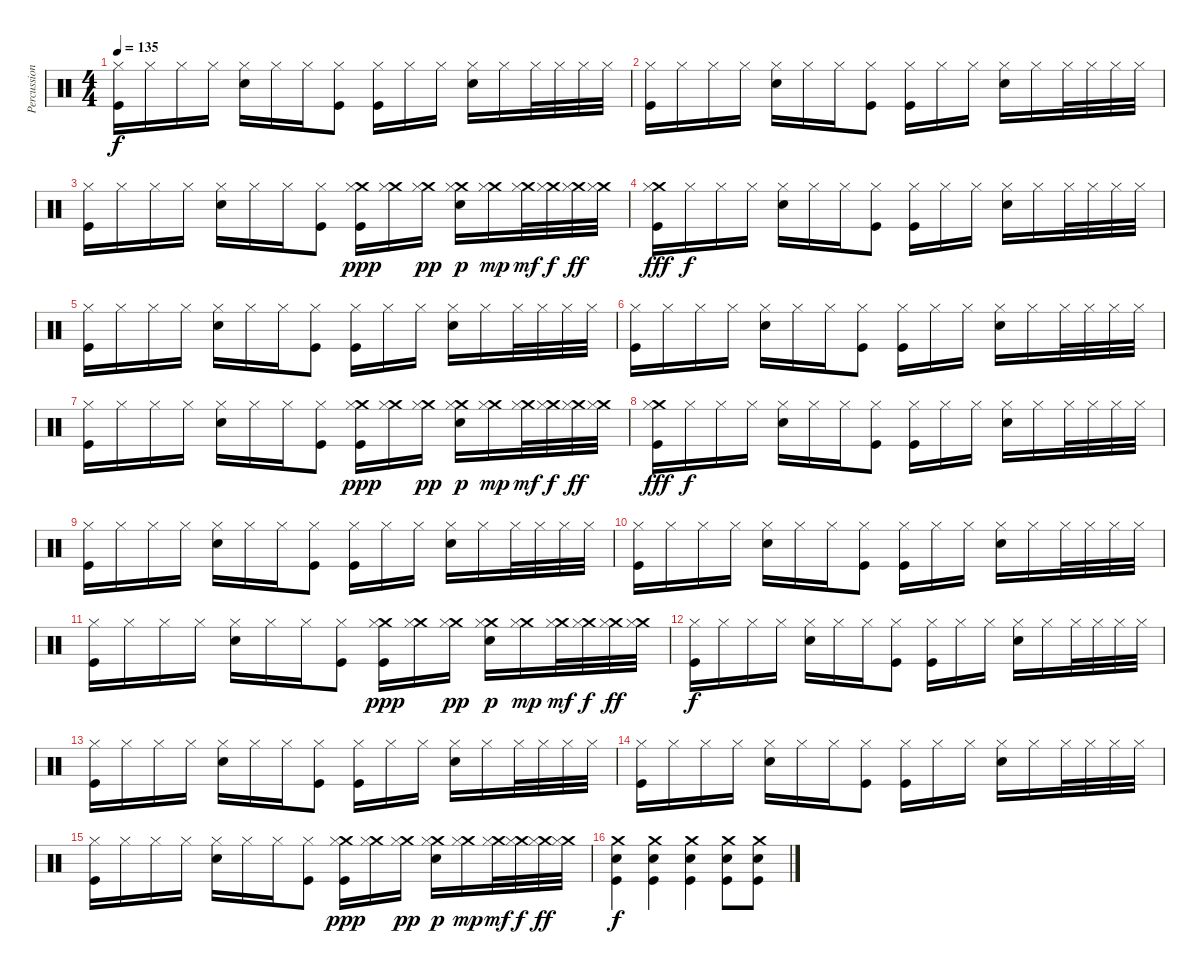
\track ("Percussion" "Percussion") {instrument percussion}
\staff {score}
\articulation defaults
\ts (4 4)
\tempo 135
\clef neutral
\ks c
("Hi-Hat (closed)" "Kick (hit)").16{dy f} "Hi-Hat (closed)".16 "Hi-Hat (closed)".16 "Hi-Hat (closed)".16 ("Hi-Hat (closed)" "Snare (hit) 2").16 "Hi-Hat (closed)".16 "Hi-Hat (closed)".16 ("Hi-Hat (closed)" "Kick (hit)").8 ("Hi-Hat (closed)" "Kick (hit)").16 "Hi-Hat (closed)".16 "Hi-Hat (closed)".16 ("Hi-Hat (closed)" "Snare (hit) 2").16 "Hi-Hat (closed)".16 "Hi-Hat (closed)".32 "Hi-Hat (closed)".32 "Hi-Hat (closed)".32 "Hi-Hat (closed)".32 |
("Hi-Hat (closed)" "Kick (hit)").16 "Hi-Hat (closed)".16 "Hi-Hat (closed)".16 "Hi-Hat (closed)".16 ("Hi-Hat (closed)" "Snare (hit) 2").16 "Hi-Hat (closed)".16 "Hi-Hat (closed)".16 ("Hi-Hat (closed)" "Kick (hit)").8 ("Hi-Hat (closed)" "Kick (hit)").16 "Hi-Hat (closed)".16 "Hi-Hat (closed)".16 ("Hi-Hat (closed)" "Snare (hit) 2").16 "Hi-Hat (closed)".16 "Hi-Hat (closed)".32 "Hi-Hat (closed)".32 "Hi-Hat (closed)".32 "Hi-Hat (closed)".32 |
("Hi-Hat (closed)" "Kick (hit)").16 "Hi-Hat (closed)".16 "Hi-Hat (closed)".16 "Hi-Hat (closed)".16 ("Hi-Hat (closed)" "Snare (hit) 2").16 "Hi-Hat (closed)".16 "Hi-Hat (closed)".16 ("Hi-Hat (closed)" "Kick (hit)").8 ("Crash medium (hit)" "Hi-Hat (closed)" "Kick (hit)").16{dy ppp} ("Crash medium (hit)" "Hi-Hat (closed)").16 ("Crash medium (hit)" "Hi-Hat (closed)").16{dy pp} ("Crash medium (hit)" "Hi-Hat (closed)" "Snare (hit) 2").16{dy p} ("Crash medium (hit)" "Hi-Hat (closed)").16{dy mp} ("Crash medium (hit)" "Hi-Hat (closed)").32{dy mf} ("Crash medium (hit)" "Hi-Hat (closed)").32{dy f} ("Crash medium (hit)" "Hi-Hat (closed)").32{dy ff} ("Crash medium (hit)" "Hi-Hat (closed)").32 |
("Crash medium (hit)" "Hi-Hat (closed)" "Kick (hit)").16{dy fff} "Hi-Hat (closed)".16{dy f} "Hi-Hat (closed)".16 "Hi-Hat (closed)".16 ("Hi-Hat (closed)" "Snare (hit) 2").16 "Hi-Hat (closed)".16 "Hi-Hat (closed)".16 ("Hi-Hat (closed)" "Kick (hit)").8 ("Hi-Hat (closed)" "Kick (hit)").16 "Hi-Hat (closed)".16 "Hi-Hat (closed)".16 ("Hi-Hat (closed)" "Snare (hit) 2").16 "Hi-Hat (closed)".16 "Hi-Hat (closed)".32 "Hi-Hat (closed)".32 "Hi-Hat (closed)".32 "Hi-Hat (closed)".32 |
("Hi-Hat (closed)" "Kick (hit)").16 "Hi-Hat (closed)".16 "Hi-Hat (closed)".16 "Hi-Hat (closed)".16 ("Hi-Hat (closed)" "Snare (hit) 2").16 "Hi-Hat (closed)".16 "Hi-Hat (closed)".16 ("Hi-Hat (closed)" "Kick (hit)").8 ("Hi-Hat (closed)" "Kick (hit)").16 "Hi-Hat (closed)".16 "Hi-Hat (closed)".16 ("Hi-Hat (closed)" "Snare (hit) 2").16 "Hi-Hat (closed)".16 "Hi-Hat (closed)".32 "Hi-Hat (closed)".32 "Hi-Hat (closed)".32 "Hi-Hat (closed)".32 |
("Hi-Hat (closed)" "Kick (hit)").16 "Hi-Hat (closed)".16 "Hi-Hat (closed)".16 "Hi-Hat (closed)".16 ("Hi-Hat (closed)" "Snare (hit) 2").16 "Hi-Hat (closed)".16 "Hi-Hat (closed)".16 ("Hi-Hat (closed)" "Kick (hit)").8 ("Hi-Hat (closed)" "Kick (hit)").16 "Hi-Hat (closed)".16 "Hi-Hat (closed)".16 ("Hi-Hat (closed)" "Snare (hit) 2").16 "Hi-Hat (closed)".16 "Hi-Hat (closed)".32 "Hi-Hat (closed)".32 "Hi-Hat (closed)".32 "Hi-Hat (closed)".32 |
("Hi-Hat (closed)" "Kick (hit)").16 "Hi-Hat (closed)".16 "Hi-Hat (closed)".16 "Hi-Hat (closed)".16 ("Hi-Hat (closed)" "Snare (hit) 2").16 "Hi-Hat (closed)".16 "Hi-Hat (closed)".16 ("Hi-Hat (closed)" "Kick (hit)").8 ("Crash medium (hit)" "Hi-Hat (closed)" "Kick (hit)").16{dy ppp} ("Crash medium (hit)" "Hi-Hat (closed)").16 ("Crash medium (hit)" "Hi-Hat (closed)").16{dy pp} ("Crash medium (hit)" "Hi-Hat (closed)" "Snare (hit) 2").16{dy p} ("Crash medium (hit)" "Hi-Hat (closed)").16{dy mp} ("Crash medium (hit)" "Hi-Hat (closed)").32{dy mf} ("Crash medium (hit)" "Hi-Hat (closed)").32{dy f} ("Crash medium (hit)" "Hi-Hat (closed)").32{dy ff} ("Crash medium (hit)" "Hi-Hat (closed)").32 |
("Crash medium (hit)" "Hi-Hat (closed)" "Kick (hit)").16{dy fff} "Hi-Hat (closed)".16{dy f} "Hi-Hat (closed)".16 "Hi-Hat (closed)".16 ("Hi-Hat (closed)" "Snare (hit) 2").16 "Hi-Hat (closed)".16 "Hi-Hat (closed)".16 ("Hi-Hat (closed)" "Kick (hit)").8 ("Hi-Hat (closed)" "Kick (hit)").16 "Hi-Hat (closed)".16 "Hi-Hat (closed)".16 ("Hi-Hat (closed)" "Snare (hit) 2").16 "Hi-Hat (closed)".16 "Hi-Hat (closed)".32 "Hi-Hat (closed)".32 "Hi-Hat (closed)".32 "Hi-Hat (closed)".32 |
("Hi-Hat (closed)" "Kick (hit)").16 "Hi-Hat (closed)".16 "Hi-Hat (closed)".16 "Hi-Hat (closed)".16 ("Hi-Hat (closed)" "Snare (hit) 2").16 "Hi-Hat (closed)".16 "Hi-Hat (closed)".16 ("Hi-Hat (closed)" "Kick (hit)").8 ("Hi-Hat (closed)" "Kick (hit)").16 "Hi-Hat (closed)".16 "Hi-Hat (closed)".16 ("Hi-Hat (closed)" "Snare (hit) 2").16 "Hi-Hat (closed)".16 "Hi-Hat (closed)".32 "Hi-Hat (closed)".32 "Hi-Hat (closed)".32 "Hi-Hat (closed)".32 |
("Hi-Hat (closed)" "Kick (hit)").16 "Hi-Hat (closed)".16 "Hi-Hat (closed)".16 "Hi-Hat (closed)".16 ("Hi-Hat (closed)" "Snare (hit) 2").16 "Hi-Hat (closed)".16 "Hi-Hat (closed)".16 ("Hi-Hat (closed)" "Kick (hit)").8 ("Hi-Hat (closed)" "Kick (hit)").16 "Hi-Hat (closed)".16 "Hi-Hat (closed)".16 ("Hi-Hat (closed)" "Snare (hit) 2").16 "Hi-Hat (closed)".16 "Hi-Hat (closed)".32 "Hi-Hat (closed)".32 "Hi-Hat (closed)".32 "Hi-Hat (closed)".32 |
("Hi-Hat (closed)" "Kick (hit)").16 "Hi-Hat (closed)".16 "Hi-Hat (closed)".16 "Hi-Hat (closed)".16 ("Hi-Hat (closed)" "Snare (hit) 2").16 "Hi-Hat (closed)".16 "Hi-Hat (closed)".16 ("Hi-Hat (closed)" "Kick (hit)").8 ("Crash medium (hit)" "Hi-Hat (closed)" "Kick (hit)").16{dy ppp} ("Crash medium (hit)" "Hi-Hat (closed)").16 ("Crash medium (hit)" "Hi-Hat (closed)").16{dy pp} ("Crash medium (hit)" "Hi-Hat (closed)" "Snare (hit) 2").16{dy p} ("Crash medium (hit)" "Hi-Hat (closed)").16{dy mp} ("Crash medium (hit)" "Hi-Hat (closed)").32{dy mf} ("Crash medium (hit)" "Hi-Hat (closed)").32{dy f} ("Crash medium (hit)" "Hi-Hat (closed)").32{dy ff} ("Crash medium (hit)" "Hi-Hat (closed)").32 |
("Hi-Hat (closed)" "Kick (hit)").16{dy f} "Hi-Hat (closed)".16 "Hi-Hat (closed)".16 "Hi-Hat (closed)".16 ("Hi-Hat (closed)" "Snare (hit) 2").16 "Hi-Hat (closed)".16 "Hi-Hat (closed)".16 ("Hi-Hat (closed)" "Kick (hit)").8 ("Hi-Hat (closed)" "Kick (hit)").16 "Hi-Hat (closed)".16 "Hi-Hat (closed)".16 ("Hi-Hat (closed)" "Snare (hit) 2").16 "Hi-Hat (closed)".16 "Hi-Hat (closed)".32 "Hi-Hat (closed)".32 "Hi-Hat (closed)".32 "Hi-Hat (closed)".32 |
("Hi-Hat (closed)" "Kick (hit)").16 "Hi-Hat (closed)".16 "Hi-Hat (closed)".16 "Hi-Hat (closed)".16 ("Hi-Hat (closed)" "Snare (hit) 2").16 "Hi-Hat (closed)".16 "Hi-Hat (closed)".16 ("Hi-Hat (closed)" "Kick (hit)").8 ("Hi-Hat (closed)" "Kick (hit)").16 "Hi-Hat (closed)".16 "Hi-Hat (closed)".16 ("Hi-Hat (closed)" "Snare (hit) 2").16 "Hi-Hat (closed)".16 "Hi-Hat (closed)".32 "Hi-Hat (closed)".32 "Hi-Hat (closed)".32 "Hi-Hat (closed)".32 |
("Hi-Hat (closed)" "Kick (hit)").16 "Hi-Hat (closed)".16 "Hi-Hat (closed)".16 "Hi-Hat (closed)".16 ("Hi-Hat (closed)" "Snare (hit) 2").16 "Hi-Hat (closed)".16 "Hi-Hat (closed)".16 ("Hi-Hat (closed)" "Kick (hit)").8 ("Hi-Hat (closed)" "Kick (hit)").16 "Hi-Hat (closed)".16 "Hi-Hat (closed)".16 ("Hi-Hat (closed)" "Snare (hit) 2").16 "Hi-Hat (closed)".16 "Hi-Hat (closed)".32 "Hi-Hat (closed)".32 "Hi-Hat (closed)".32 "Hi-Hat (closed)".32 |
("Hi-Hat (closed)" "Kick (hit)").16 "Hi-Hat (closed)".16 "Hi-Hat (closed)".16 "Hi-Hat (closed)".16 ("Hi-Hat (closed)" "Snare (hit) 2").16 "Hi-Hat (closed)".16 "Hi-Hat (closed)".16 ("Hi-Hat (closed)" "Kick (hit)").8 ("Crash medium (hit)" "Hi-Hat (closed)" "Kick (hit)").16{dy ppp} ("Crash medium (hit)" "Hi-Hat (closed)").16 ("Crash medium (hit)" "Hi-Hat (closed)").16{dy pp} ("Crash medium (hit)" "Hi-Hat (closed)" "Snare (hit) 2").16{dy p} ("Crash medium (hit)" "Hi-Hat (closed)").16{dy mp} ("Crash medium (hit)" "Hi-Hat (closed)").32{dy mf} ("Crash medium (hit)" "Hi-Hat (closed)").32{dy f} ("Crash medium (hit)" "Hi-Hat (closed)").32{dy ff} ("Crash medium (hit)" "Hi-Hat (closed)").32 |
("Crash medium (hit)" "Snare (hit) 2" "Kick (hit)").4{dy f} ("Crash medium (hit)" "Snare (hit) 2" "Kick (hit)").4 ("Crash medium (hit)" "Snare (hit) 2" "Kick (hit)").4 ("Crash medium (hit)" "Snare (hit) 2" "Kick (hit)").8 ("Crash medium (hit)" "Snare (hit) 2" "Kick (hit)").8
